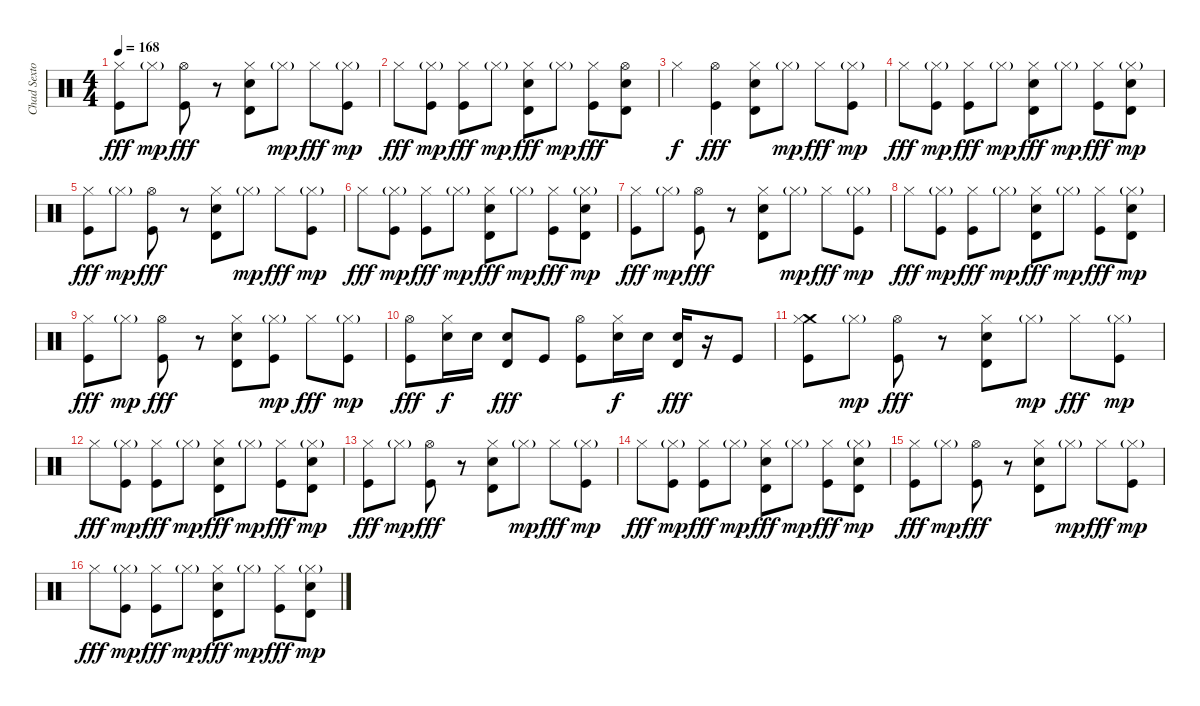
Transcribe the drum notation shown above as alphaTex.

\track ("Chad Sexton" "Chad Sexto") {instrument percussion}
\staff {score}
\articulation defaults
\ts (4 4)
\tempo 168
\clef neutral
\ks c
("Kick (hit)" "Hi-Hat (closed)").8{dy fff} "Hi-Hat (closed)"{g}.8{dy mp} ("Kick (hit)" "Hi-Hat (open)").8{dy fff} r.8 ("Electric Snare (hit)" "Timbale high (hit)" "Hi-Hat (closed)").8 "Hi-Hat (closed)"{g}.8{dy mp} "Hi-Hat (closed)".8{dy fff} ("Kick (hit)" "Hi-Hat (closed)"{g}).8{dy mp} |
"Hi-Hat (closed)".8{dy fff} ("Kick (hit)" "Hi-Hat (closed)"{g}).8{dy mp} ("Kick (hit)" "Hi-Hat (closed)").8{dy fff} "Hi-Hat (closed)"{g}.8{dy mp} ("Electric Snare (hit)" "Timbale high (hit)" "Hi-Hat (closed)").8{dy fff} "Hi-Hat (closed)"{g}.8{dy mp} ("Kick (hit)" "Hi-Hat (closed)").8{dy fff} ("Electric Snare (hit)" "Timbale high (hit)" "Hi-Hat (open)").8 |
"Hi-Hat (closed)".4{dy f} ("Kick (hit)" "Hi-Hat (open)").4{dy fff} ("Electric Snare (hit)" "Timbale high (hit)" "Hi-Hat (closed)").8 "Hi-Hat (closed)"{g}.8{dy mp} "Hi-Hat (closed)".8{dy fff} ("Kick (hit)" "Hi-Hat (closed)"{g}).8{dy mp} |
"Hi-Hat (closed)".8{dy fff} ("Kick (hit)" "Hi-Hat (closed)"{g}).8{dy mp} ("Kick (hit)" "Hi-Hat (closed)").8{dy fff} "Hi-Hat (closed)"{g}.8{dy mp} ("Electric Snare (hit)" "Timbale high (hit)" "Hi-Hat (closed)").8{dy fff} "Hi-Hat (closed)"{g}.8{dy mp} ("Kick (hit)" "Hi-Hat (closed)").8{dy fff} ("Electric Snare (hit)" "Timbale high (hit)" "Hi-Hat (closed)"{g}).8{dy mp} |
("Kick (hit)" "Hi-Hat (closed)").8{dy fff} "Hi-Hat (closed)"{g}.8{dy mp} ("Kick (hit)" "Hi-Hat (open)").8{dy fff} r.8 ("Electric Snare (hit)" "Timbale high (hit)" "Hi-Hat (closed)").8 "Hi-Hat (closed)"{g}.8{dy mp} "Hi-Hat (closed)".8{dy fff} ("Kick (hit)" "Hi-Hat (closed)"{g}).8{dy mp} |
"Hi-Hat (closed)".8{dy fff} ("Kick (hit)" "Hi-Hat (closed)"{g}).8{dy mp} ("Kick (hit)" "Hi-Hat (closed)").8{dy fff} "Hi-Hat (closed)"{g}.8{dy mp} ("Electric Snare (hit)" "Timbale high (hit)" "Hi-Hat (closed)").8{dy fff} "Hi-Hat (closed)"{g}.8{dy mp} ("Kick (hit)" "Hi-Hat (closed)").8{dy fff} ("Electric Snare (hit)" "Timbale high (hit)" "Hi-Hat (closed)"{g}).8{dy mp} |
("Kick (hit)" "Hi-Hat (closed)").8{dy fff} "Hi-Hat (closed)"{g}.8{dy mp} ("Kick (hit)" "Hi-Hat (open)").8{dy fff} r.8 ("Electric Snare (hit)" "Timbale high (hit)" "Hi-Hat (closed)").8 "Hi-Hat (closed)"{g}.8{dy mp} "Hi-Hat (closed)".8{dy fff} ("Kick (hit)" "Hi-Hat (closed)"{g}).8{dy mp} |
"Hi-Hat (closed)".8{dy fff} ("Kick (hit)" "Hi-Hat (closed)"{g}).8{dy mp} ("Kick (hit)" "Hi-Hat (closed)").8{dy fff} "Hi-Hat (closed)"{g}.8{dy mp} ("Electric Snare (hit)" "Timbale high (hit)" "Hi-Hat (closed)").8{dy fff} "Hi-Hat (closed)"{g}.8{dy mp} ("Kick (hit)" "Hi-Hat (closed)").8{dy fff} ("Electric Snare (hit)" "Timbale high (hit)" "Hi-Hat (closed)"{g}).8{dy mp} |
("Kick (hit)" "Hi-Hat (closed)").8{dy fff} "Hi-Hat (closed)"{g}.8{dy mp} ("Kick (hit)" "Hi-Hat (open)").8{dy fff} r.8 ("Electric Snare (hit)" "Timbale high (hit)" "Hi-Hat (closed)").8 ("Kick (hit)" "Hi-Hat (closed)"{g}).8{dy mp} "Hi-Hat (closed)".8{dy fff} ("Kick (hit)" "Hi-Hat (closed)"{g}).8{dy mp} |
("Kick (hit)" "Hi-Hat (open)").8{dy fff} ("Electric Snare (hit)" "Hi-Hat (closed)").16{dy f} "Electric Snare (hit)".16 ("Electric Snare (hit)" "Timbale high (hit)").8{dy fff} "Kick (hit)".8 ("Kick (hit)" "Hi-Hat (open)").8 ("Electric Snare (hit)" "Hi-Hat (closed)").16{dy f} "Electric Snare (hit)".16 ("Electric Snare (hit)" "Timbale high (hit)").16{dy fff} r.16 "Kick (hit)".8 |
("Crash medium (hit)" "Kick (hit)" "Hi-Hat (closed)").8 "Hi-Hat (closed)"{g}.8{dy mp} ("Kick (hit)" "Hi-Hat (open)").8{dy fff} r.8 ("Electric Snare (hit)" "Timbale high (hit)" "Hi-Hat (closed)").8 "Hi-Hat (closed)"{g}.8{dy mp} "Hi-Hat (closed)".8{dy fff} ("Kick (hit)" "Hi-Hat (closed)"{g}).8{dy mp} |
"Hi-Hat (closed)".8{dy fff} ("Kick (hit)" "Hi-Hat (closed)"{g}).8{dy mp} ("Kick (hit)" "Hi-Hat (closed)").8{dy fff} "Hi-Hat (closed)"{g}.8{dy mp} ("Electric Snare (hit)" "Timbale high (hit)" "Hi-Hat (closed)").8{dy fff} "Hi-Hat (closed)"{g}.8{dy mp} ("Kick (hit)" "Hi-Hat (closed)").8{dy fff} ("Electric Snare (hit)" "Timbale high (hit)" "Hi-Hat (closed)"{g}).8{dy mp} |
("Kick (hit)" "Hi-Hat (closed)").8{dy fff} "Hi-Hat (closed)"{g}.8{dy mp} ("Kick (hit)" "Hi-Hat (open)").8{dy fff} r.8 ("Electric Snare (hit)" "Timbale high (hit)" "Hi-Hat (closed)").8 "Hi-Hat (closed)"{g}.8{dy mp} "Hi-Hat (closed)".8{dy fff} ("Kick (hit)" "Hi-Hat (closed)"{g}).8{dy mp} |
"Hi-Hat (closed)".8{dy fff} ("Kick (hit)" "Hi-Hat (closed)"{g}).8{dy mp} ("Kick (hit)" "Hi-Hat (closed)").8{dy fff} "Hi-Hat (closed)"{g}.8{dy mp} ("Electric Snare (hit)" "Timbale high (hit)" "Hi-Hat (closed)").8{dy fff} "Hi-Hat (closed)"{g}.8{dy mp} ("Kick (hit)" "Hi-Hat (closed)").8{dy fff} ("Electric Snare (hit)" "Timbale high (hit)" "Hi-Hat (closed)"{g}).8{dy mp} |
("Kick (hit)" "Hi-Hat (closed)").8{dy fff} "Hi-Hat (closed)"{g}.8{dy mp} ("Kick (hit)" "Hi-Hat (open)").8{dy fff} r.8 ("Electric Snare (hit)" "Timbale high (hit)" "Hi-Hat (closed)").8 "Hi-Hat (closed)"{g}.8{dy mp} "Hi-Hat (closed)".8{dy fff} ("Kick (hit)" "Hi-Hat (closed)"{g}).8{dy mp} |
"Hi-Hat (closed)".8{dy fff} ("Kick (hit)" "Hi-Hat (closed)"{g}).8{dy mp} ("Kick (hit)" "Hi-Hat (closed)").8{dy fff} "Hi-Hat (closed)"{g}.8{dy mp} ("Electric Snare (hit)" "Timbale high (hit)" "Hi-Hat (closed)").8{dy fff} "Hi-Hat (closed)"{g}.8{dy mp} ("Kick (hit)" "Hi-Hat (closed)").8{dy fff} ("Electric Snare (hit)" "Timbale high (hit)" "Hi-Hat (closed)"{g}).8{dy mp}
